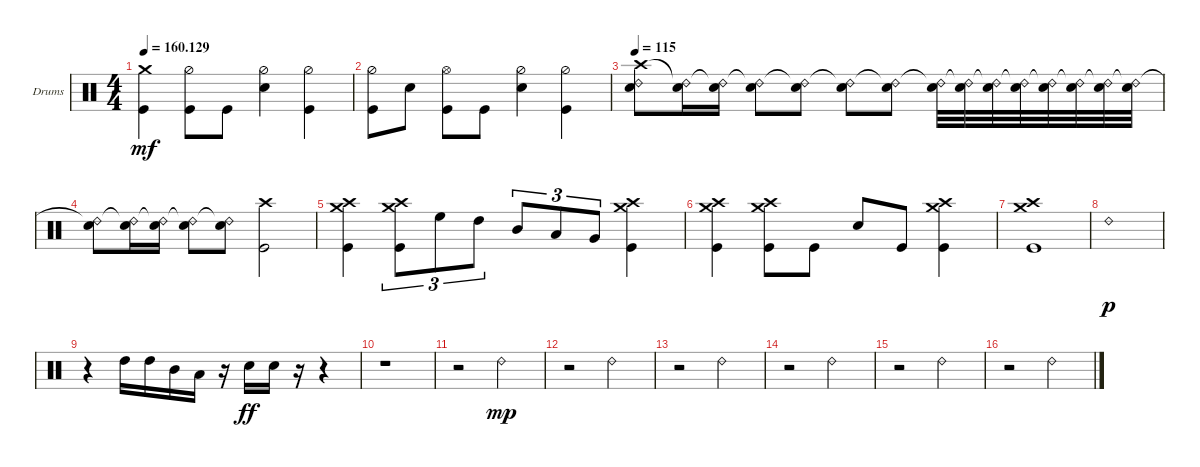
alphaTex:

\defaultSystemsLayout 4
\bracketExtendMode groupsimilarinstruments
\firstSystemTrackNameOrientation horizontal
\otherSystemsTrackNameOrientation horizontal
\track ("Drumkit" "Drums") {instrument percussion}
\staff {score}
\articulation defaults
\ts (4 4)
\tempo
160.129
\accidentals auto
\clef neutral
\ottava regular
\simile none
\ks c
("Kick (hit)" "Crash medium (hit)").4{dy mf} ("Kick (hit)" "Hi-Hat (half)").8 "Kick (hit)".8 ("Snare (hit) 2" "Hi-Hat (half)").4 ("Kick (hit)" "Hi-Hat (half)").4 |
("Hi-Hat (half)" "Kick (hit)").8 "Snare (hit) 2".8 ("Kick (hit)" "Hi-Hat (open)").8 "Kick (hit)".8 ("Snare (hit) 2" "Hi-Hat (half)").4 ("Hi-Hat (half)" "Kick (hit)").4 |
\tempo 115
("Snare (hit) 2" "Crash high (hit)" "Ride (bell) 2").8 ("Snare (hit) 2" "Ride (bell) 2"{t}).16 ("Snare (hit) 2" "Ride (bell) 2"{t}).16 ("Snare (hit) 2" "Ride (bell) 2"{t}).8 ("Snare (hit) 2" "Ride (bell) 2"{t}).8 ("Snare (hit) 2" "Ride (bell) 2"{t}).8 ("Snare (hit) 2" "Ride (bell) 2"{t}).8 ("Snare (hit) 2" "Ride (bell) 2"{t}).32 ("Snare (hit) 2" "Ride (bell) 2"{t}).32 ("Snare (hit) 2" "Ride (bell) 2"{t}).32 ("Snare (hit) 2" "Ride (bell) 2"{t}).32 ("Snare (hit) 2" "Ride (bell) 2"{t}).32 ("Snare (hit) 2" "Ride (bell) 2"{t}).32 ("Snare (hit) 2" "Ride (bell) 2"{t}).32 ("Snare (hit) 2" "Ride (bell) 2"{t}).32 |
("Snare (hit) 2" "Ride (bell) 2"{t}).8 ("Snare (hit) 2" "Ride (bell) 2"{t}).16 ("Snare (hit) 2" "Ride (bell) 2"{t}).16 ("Snare (hit) 2" "Ride (bell) 2"{t}).8 ("Snare (hit) 2" "Ride (bell) 2"{t}).8 ("Kick (hit)" "Crash high (hit)").2 |
("Kick (hit)" "Crash high (hit)" "Crash medium (hit)").4 ("Kick (hit)" "Crash medium (hit)" "Crash high (hit)").8{tu (3 2)} "High Floor Tom (hit)".8{tu (3 2)} "High Tom (hit)".8{tu (3 2)} "Mid Tom (hit)".8{tu (3 2)} "Low Tom (hit)".8{tu (3 2)} "Very Low Tom (hit)".8{tu (3 2)} ("Kick (hit)" "Crash high (hit)" "Crash medium (hit)").4 |
("Crash medium (hit)" "Crash high (hit)" "Kick (hit)").4 ("Kick (hit)" "Crash medium (hit)" "Crash high (hit)").8 "Kick (hit)".8 "Snare (hit) 2".8 "Kick (hit)".8 ("Kick (hit)" "Crash high (hit)" "Crash medium (hit)").4 |
("Crash high (hit)" "Crash medium (hit)" "Kick (hit)").1 |
"Ride (bell) 2".1{dy p} |
r.4 "High Tom (hit)".16 "High Tom (hit)".16 "Mid Tom (hit)".16 "Low Tom (hit)".16 r.16 "Snare (hit) 2".16{dy ff} "Snare (hit) 2".16 r.16 r.4 |
r.1 |
r.2 "Ride (bell) 2".2{dy mp} |
r.2 "Ride (bell) 2".2 |
r.2 "Ride (bell) 2".2 |
r.2 "Ride (bell) 2".2 |
r.2 "Ride (bell) 2".2 |
r.2 "Ride (bell) 2".2
